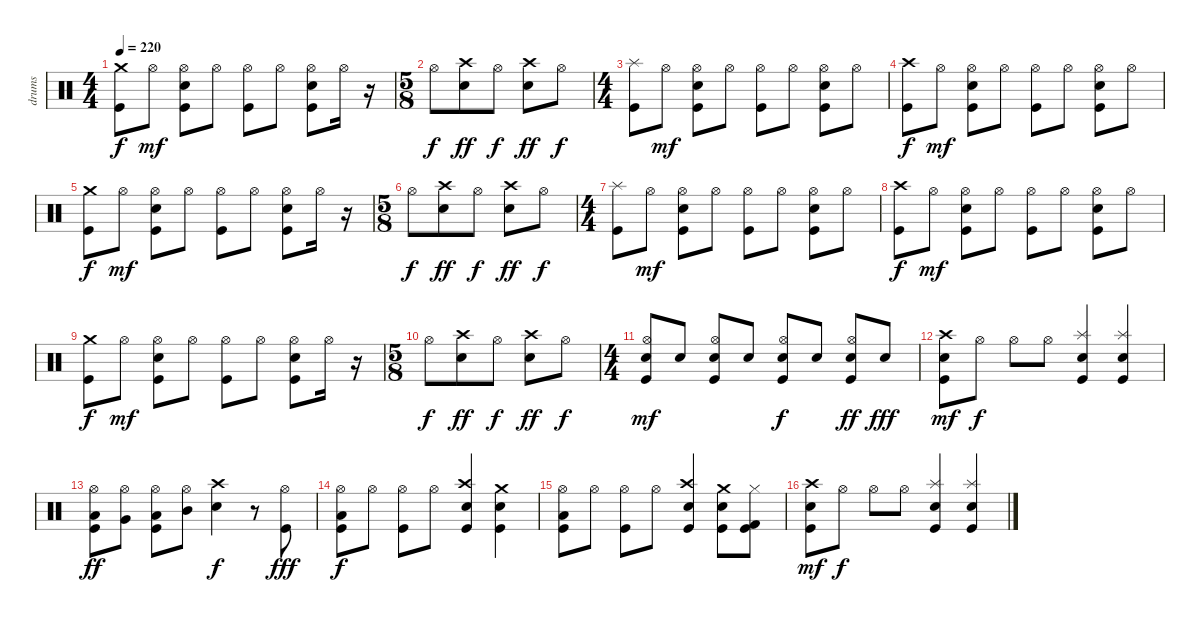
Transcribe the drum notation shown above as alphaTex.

\track ("drums" "drums") {instrument percussion}
\staff {score}
\articulation defaults
\ts (4 4)
\tempo 220
\clef neutral
\ks c
("Crash medium (hit)" "Kick (hit)").8{dy f} "Hi-Hat (open)".8{dy mf} ("Hi-Hat (open)" "Snare (hit) 2" "Kick (hit)").8 "Hi-Hat (open)".8 ("Hi-Hat (open)" "Kick (hit)").8 "Hi-Hat (open)".8 ("Hi-Hat (open)" "Snare (hit) 2" "Kick (hit)").8 "Hi-Hat (open)".16 r.16 |
\ts (5 8)
"Hi-Hat (open)".8{dy f} ("Crash high (hit)" "Snare (hit) 2").8{dy ff} "Hi-Hat (open)".8{dy f} ("Crash high (hit)" "Snare (hit) 2").8{dy ff} "Hi-Hat (open)".8{dy f} |
\ts (4 4)
("Splash (hit)" "Kick (hit)").8 "Hi-Hat (open)".8{dy mf} ("Hi-Hat (open)" "Snare (hit) 2" "Kick (hit)").8 "Hi-Hat (open)".8 ("Hi-Hat (open)" "Kick (hit)").8 "Hi-Hat (open)".8 ("Hi-Hat (open)" "Snare (hit) 2" "Kick (hit)").8 "Hi-Hat (open)".8 |
("Crash high (hit)" "Kick (hit)").8{dy f} "Hi-Hat (open)".8{dy mf} ("Hi-Hat (open)" "Snare (hit) 2" "Kick (hit)").8 "Hi-Hat (open)".8 ("Hi-Hat (open)" "Kick (hit)").8 "Hi-Hat (open)".8 ("Hi-Hat (open)" "Snare (hit) 2" "Kick (hit)").8 "Hi-Hat (open)".8 |
("Crash medium (hit)" "Kick (hit)").8{dy f} "Hi-Hat (open)".8{dy mf} ("Hi-Hat (open)" "Snare (hit) 2" "Kick (hit)").8 "Hi-Hat (open)".8 ("Hi-Hat (open)" "Kick (hit)").8 "Hi-Hat (open)".8 ("Hi-Hat (open)" "Snare (hit) 2" "Kick (hit)").8 "Hi-Hat (open)".16 r.16 |
\ts (5 8)
"Hi-Hat (open)".8{dy f} ("Crash high (hit)" "Snare (hit) 2").8{dy ff} "Hi-Hat (open)".8{dy f} ("Crash high (hit)" "Snare (hit) 2").8{dy ff} "Hi-Hat (open)".8{dy f} |
\ts (4 4)
("Splash (hit)" "Kick (hit)").8 "Hi-Hat (open)".8{dy mf} ("Hi-Hat (open)" "Snare (hit) 2" "Kick (hit)").8 "Hi-Hat (open)".8 ("Hi-Hat (open)" "Kick (hit)").8 "Hi-Hat (open)".8 ("Hi-Hat (open)" "Snare (hit) 2" "Kick (hit)").8 "Hi-Hat (open)".8 |
("Crash high (hit)" "Kick (hit)").8{dy f} "Hi-Hat (open)".8{dy mf} ("Hi-Hat (open)" "Snare (hit) 2" "Kick (hit)").8 "Hi-Hat (open)".8 ("Hi-Hat (open)" "Kick (hit)").8 "Hi-Hat (open)".8 ("Hi-Hat (open)" "Snare (hit) 2" "Kick (hit)").8 "Hi-Hat (open)".8 |
("Crash medium (hit)" "Kick (hit)").8{dy f} "Hi-Hat (open)".8{dy mf} ("Hi-Hat (open)" "Snare (hit) 2" "Kick (hit)").8 "Hi-Hat (open)".8 ("Hi-Hat (open)" "Kick (hit)").8 "Hi-Hat (open)".8 ("Hi-Hat (open)" "Snare (hit) 2" "Kick (hit)").8 "Hi-Hat (open)".16 r.16 |
\ts (5 8)
"Hi-Hat (open)".8{dy f} ("Crash high (hit)" "Snare (hit) 2").8{dy ff} "Hi-Hat (open)".8{dy f} ("Crash high (hit)" "Snare (hit) 2").8{dy ff} "Hi-Hat (open)".8{dy f} |
\ts (4 4)
("Hi-Hat (open)" "Electric Snare (hit)" "Kick (hit)").8{dy mf} "Electric Snare (hit)".8 ("Hi-Hat (open)" "Electric Snare (hit)" "Kick (hit)").8 "Electric Snare (hit)".8 ("Hi-Hat (open)" "Electric Snare (hit)" "Kick (hit)").8{dy f} "Electric Snare (hit)".8 ("Hi-Hat (open)" "Electric Snare (hit)" "Kick (hit)").8{dy ff} "Electric Snare (hit)".8{dy fff} |
("Electric Snare (hit)" "Crash high (hit)" "Kick (hit)").8{dy mf} "Hi-Hat (open)".8{dy f} "Hi-Hat (open)".8 "Hi-Hat (open)".8 ("Electric Snare (hit)" "Splash (hit)" "Kick (hit)").4 ("Electric Snare (hit)" "Splash (hit)" "Kick (hit)").4 |
("Hi-Hat (open)" "Low Floor Tom (hit)" "Kick (hit)").8{dy ff} ("Hi-Hat (open)" "Very Low Tom (hit)").8 ("Hi-Hat (open)" "Low Tom (hit)" "Kick (hit)").8 ("Hi-Hat (open)" "Mid Tom (hit)").8 ("Crash high (hit)" "Electric Snare (hit)").4{dy f} r.8 ("Hi-Hat (open)" "Kick (hit)").8{dy fff} |
("Low Tom (hit)" "Kick (hit)" "Hi-Hat (open)").8{dy f} "Hi-Hat (open)".8 ("Kick (hit)" "Hi-Hat (open)").8 "Hi-Hat (open)".8 ("Crash high (hit)" "Electric Snare (hit)" "Kick (hit)").4 ("Crash medium (hit)" "Electric Snare (hit)" "Kick (hit)").4 |
("Low Tom (hit)" "Kick (hit)" "Hi-Hat (open)").8 "Hi-Hat (open)".8 ("Kick (hit)" "Hi-Hat (open)").8 "Hi-Hat (open)".8 ("Crash high (hit)" "Electric Snare (hit)" "Kick (hit)").4 ("Crash medium (hit)" "Electric Snare (hit)" "Kick (hit)").8 ("Hi-Hat (closed)" "Kick (hit) 2" "Kick (hit)").8 |
("Electric Snare (hit)" "Crash high (hit)" "Kick (hit)").8{dy mf} "Hi-Hat (open)".8{dy f} "Hi-Hat (open)".8 "Hi-Hat (open)".8 ("Electric Snare (hit)" "Splash (hit)" "Kick (hit)").4 ("Electric Snare (hit)" "Splash (hit)" "Kick (hit)").4
